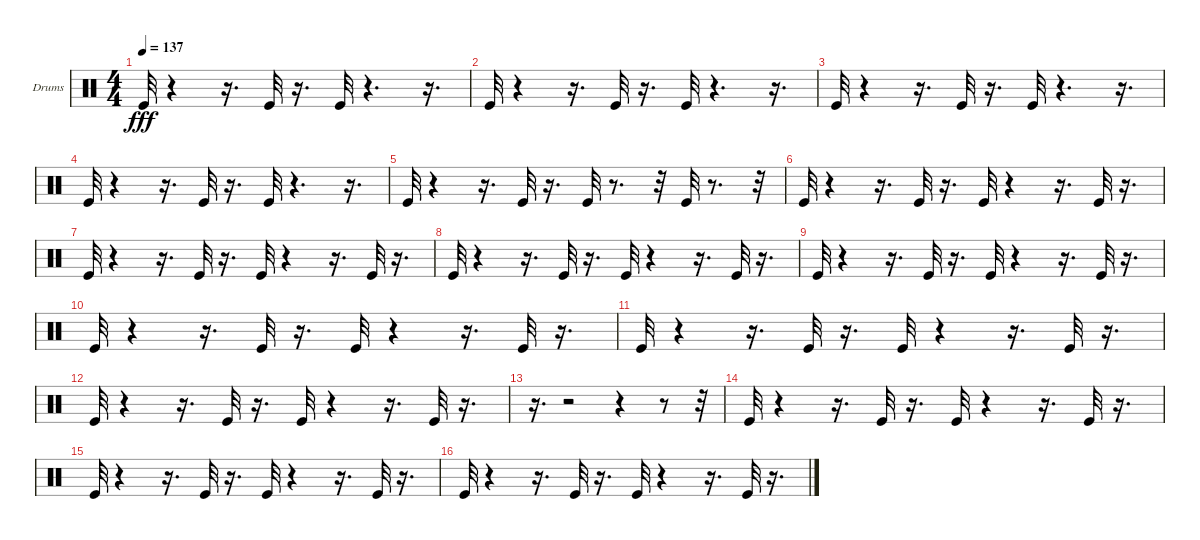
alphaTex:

\bracketExtendMode groupsimilarinstruments
\firstSystemTrackNameOrientation horizontal
\otherSystemsTrackNameOrientation horizontal
\track ("Drumkit" "Drums") {instrument percussion}
\staff {score}
\articulation defaults
\ts (4 4)
\tempo 137
\clef neutral
\ks c "Kick (hit)".32{dy fff}
r.4 r.16{d} "Kick (hit)".32 r.16{d} "Kick (hit)".32 r.4{d} r.16{d} |
"Kick (hit)".32 r.4 r.16{d} "Kick (hit)".32 r.16{d} "Kick (hit)".32 r.4{d} r.16{d} |
"Kick (hit)".32 r.4 r.16{d} "Kick (hit)".32 r.16{d} "Kick (hit)".32 r.4{d} r.16{d} |
"Kick (hit)".32 r.4 r.16{d} "Kick (hit)".32 r.16{d} "Kick (hit)".32 r.4{d} r.16{d} |
"Kick (hit)".32 r.4 r.16{d} "Kick (hit)".32 r.16{d} "Kick (hit)".32 r.8{d} r.32 "Kick (hit)".32 r.8{d} r.32 |
"Kick (hit)".32 r.4 r.16{d} "Kick (hit)".32 r.16{d} "Kick (hit)".32 r.4 r.16{d} "Kick (hit)".32 r.16{d} |
"Kick (hit)".32 r.4 r.16{d} "Kick (hit)".32 r.16{d} "Kick (hit)".32 r.4 r.16{d} "Kick (hit)".32 r.16{d} |
"Kick (hit)".32 r.4 r.16{d} "Kick (hit)".32 r.16{d} "Kick (hit)".32 r.4 r.16{d} "Kick (hit)".32 r.16{d} |
"Kick (hit)".32 r.4 r.16{d} "Kick (hit)".32 r.16{d} "Kick (hit)".32 r.4 r.16{d} "Kick (hit)".32 r.16{d} |
"Kick (hit)".32 r.4 r.16{d} "Kick (hit)".32 r.16{d} "Kick (hit)".32 r.4 r.16{d} "Kick (hit)".32 r.16{d} |
"Kick (hit)".32 r.4 r.16{d} "Kick (hit)".32 r.16{d} "Kick (hit)".32 r.4 r.16{d} "Kick (hit)".32 r.16{d} |
"Kick (hit)".32 r.4 r.16{d} "Kick (hit)".32 r.16{d} "Kick (hit)".32 r.4 r.16{d} "Kick (hit)".32 r.16{d} |
r.16{d} r.2 r.4 r.8 r.32 |
"Kick (hit)".32 r.4 r.16{d} "Kick (hit)".32 r.16{d} "Kick (hit)".32 r.4 r.16{d} "Kick (hit)".32 r.16{d} |
"Kick (hit)".32 r.4 r.16{d} "Kick (hit)".32 r.16{d} "Kick (hit)".32 r.4 r.16{d} "Kick (hit)".32 r.16{d} |
"Kick (hit)".32 r.4 r.16{d} "Kick (hit)".32 r.16{d} "Kick (hit)".32 r.4 r.16{d} "Kick (hit)".32 r.16{d}
